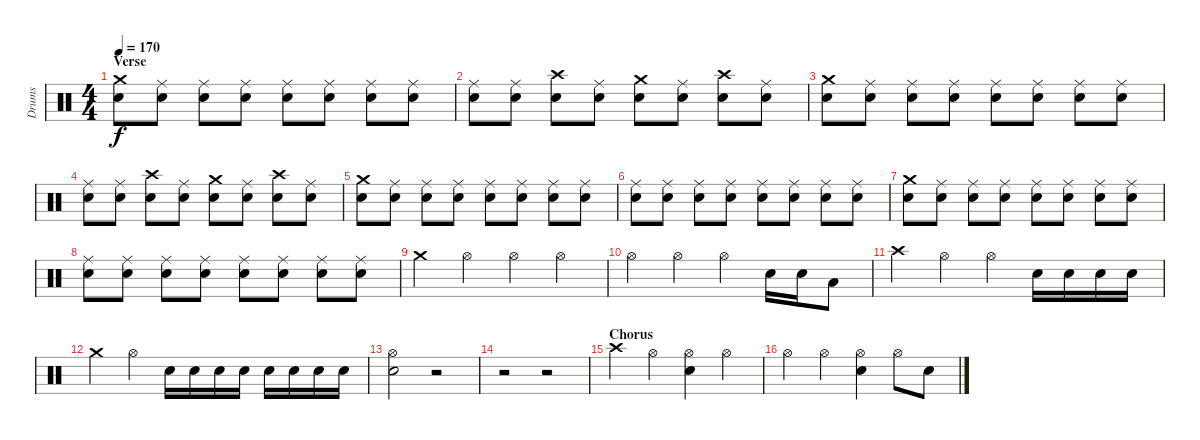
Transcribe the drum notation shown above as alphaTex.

\track ("Drums" "Drums") {instrument percussion}
\staff {score}
\articulation defaults
\ts (4 4)
\section ("" "Verse")
\tempo 170
\clef neutral
\ks c
("Crash medium (hit)" "Electric Snare (hit)").8{dy f} ("Ride (middle)" "Electric Snare (hit)").8 ("Ride (middle)" "Electric Snare (hit)").8 ("Ride (middle)" "Electric Snare (hit)").8 ("Ride (middle)" "Electric Snare (hit)").8 ("Ride (middle)" "Electric Snare (hit)").8 ("Ride (middle)" "Electric Snare (hit)").8 ("Ride (middle)" "Electric Snare (hit)").8 |
("Ride (middle)" "Electric Snare (hit)").8 ("Ride (middle)" "Electric Snare (hit)").8 ("Crash high (hit)" "Electric Snare (hit)").8 ("Ride (middle)" "Electric Snare (hit)").8 ("Crash medium (hit)" "Electric Snare (hit)").8 ("Ride (middle)" "Electric Snare (hit)").8 ("Crash high (hit)" "Electric Snare (hit)").8 ("Ride (middle)" "Electric Snare (hit)").8 |
("Crash medium (hit)" "Electric Snare (hit)").8 ("Ride (middle)" "Electric Snare (hit)").8 ("Ride (middle)" "Electric Snare (hit)").8 ("Ride (middle)" "Electric Snare (hit)").8 ("Ride (middle)" "Electric Snare (hit)").8 ("Ride (middle)" "Electric Snare (hit)").8 ("Ride (middle)" "Electric Snare (hit)").8 ("Ride (middle)" "Electric Snare (hit)").8 |
("Ride (middle)" "Electric Snare (hit)").8 ("Ride (middle)" "Electric Snare (hit)").8 ("Crash high (hit)" "Electric Snare (hit)").8 ("Ride (middle)" "Electric Snare (hit)").8 ("Crash medium (hit)" "Electric Snare (hit)").8 ("Ride (middle)" "Electric Snare (hit)").8 ("Crash high (hit)" "Electric Snare (hit)").8 ("Ride (middle)" "Electric Snare (hit)").8 |
("Crash medium (hit)" "Electric Snare (hit)").8 ("Ride (middle)" "Electric Snare (hit)").8 ("Ride (middle)" "Electric Snare (hit)").8 ("Ride (middle)" "Electric Snare (hit)").8 ("Ride (middle)" "Electric Snare (hit)").8 ("Ride (middle)" "Electric Snare (hit)").8 ("Ride (middle)" "Electric Snare (hit)").8 ("Ride (middle)" "Electric Snare (hit)").8 |
("Ride (middle)" "Electric Snare (hit)").8 ("Ride (middle)" "Electric Snare (hit)").8 ("Ride (middle)" "Electric Snare (hit)").8 ("Ride (middle)" "Electric Snare (hit)").8 ("Ride (middle)" "Electric Snare (hit)").8 ("Ride (middle)" "Electric Snare (hit)").8 ("Ride (middle)" "Electric Snare (hit)").8 ("Ride (middle)" "Electric Snare (hit)").8 |
("Crash medium (hit)" "Electric Snare (hit)").8 ("Ride (middle)" "Electric Snare (hit)").8 ("Ride (middle)" "Electric Snare (hit)").8 ("Ride (middle)" "Electric Snare (hit)").8 ("Ride (middle)" "Electric Snare (hit)").8 ("Ride (middle)" "Electric Snare (hit)").8 ("Ride (middle)" "Electric Snare (hit)").8 ("Ride (middle)" "Electric Snare (hit)").8 |
("Ride (middle)" "Electric Snare (hit)").8 ("Ride (middle)" "Electric Snare (hit)").8 ("Ride (middle)" "Electric Snare (hit)").8 ("Ride (middle)" "Electric Snare (hit)").8 ("Ride (middle)" "Electric Snare (hit)").8 ("Ride (middle)" "Electric Snare (hit)").8 ("Ride (middle)" "Electric Snare (hit)").8 ("Ride (middle)" "Electric Snare (hit)").8 |
"Crash medium (hit)".4 "Hi-Hat (open)".4 "Hi-Hat (open)".4 "Hi-Hat (open)".4 |
"Hi-Hat (open)".4 "Hi-Hat (open)".4 "Hi-Hat (open)".4 "Electric Snare (hit)".16 "Electric Snare (hit)".16 "Low Tom (hit)".8 |
"Crash high (hit)".4 "Hi-Hat (open)".4 "Hi-Hat (open)".4 "Electric Snare (hit)".16 "Electric Snare (hit)".16 "Electric Snare (hit)".16 "Electric Snare (hit)".16 |
"Crash medium (hit)".4 "Hi-Hat (open)".4 "Electric Snare (hit)".16 "Electric Snare (hit)".16 "Electric Snare (hit)".16 "Electric Snare (hit)".16 "Electric Snare (hit)".16 "Electric Snare (hit)".16 "Electric Snare (hit)".16 "Electric Snare (hit)".16 |
("Hi-Hat (open)" "Electric Snare (hit)").2 r.2 |
r.2 r.2 |
\section ("" "Chorus")
"Crash high (hit)".4 "Hi-Hat (open)".4 ("Hi-Hat (open)" "Electric Snare (hit)").4 "Hi-Hat (open)".4 |
"Hi-Hat (open)".4 "Hi-Hat (open)".4 ("Hi-Hat (open)" "Electric Snare (hit)").4 "Hi-Hat (open)".8 "Electric Snare (hit)".8
